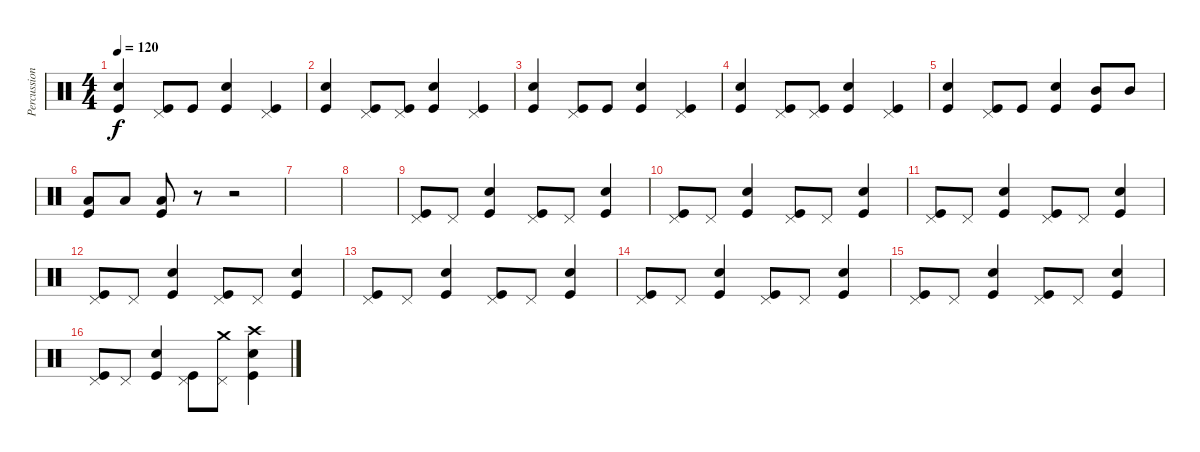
\track ("Percussion" "Percussion") {instrument percussion}
\staff {score}
\articulation defaults
\ts (4 4)
\tempo 120
\clef neutral
\ks c
("Snare (hit) 2" "Kick (hit)").4{dy f} ("Pedal Hi-Hat (hit)" "Kick (hit)").8 "Kick (hit)".8 ("Snare (hit) 2" "Kick (hit)").4 ("Pedal Hi-Hat (hit)" "Kick (hit)").4 |
("Snare (hit) 2" "Kick (hit)").4 ("Pedal Hi-Hat (hit)" "Kick (hit)").8 ("Pedal Hi-Hat (hit)" "Kick (hit)").8 ("Snare (hit) 2" "Kick (hit)").4 ("Pedal Hi-Hat (hit)" "Kick (hit)").4 |
("Snare (hit) 2" "Kick (hit)").4 ("Pedal Hi-Hat (hit)" "Kick (hit)").8 "Kick (hit)".8 ("Snare (hit) 2" "Kick (hit)").4 ("Pedal Hi-Hat (hit)" "Kick (hit)").4 |
("Snare (hit) 2" "Kick (hit)").4 ("Pedal Hi-Hat (hit)" "Kick (hit)").8 ("Pedal Hi-Hat (hit)" "Kick (hit)").8 ("Snare (hit) 2" "Kick (hit)").4 ("Pedal Hi-Hat (hit)" "Kick (hit)").4 |
("Snare (hit) 2" "Kick (hit)").4 ("Pedal Hi-Hat (hit)" "Kick (hit)").8 "Kick (hit)".8 ("Snare (hit) 2" "Kick (hit)").4 ("Mid Tom (hit)" "Kick (hit)").8 "Mid Tom (hit)".8 |
("Low Tom (hit)" "Kick (hit)").8 "Low Tom (hit)".8 ("Low Tom (hit)" "Kick (hit)").8 r.8 r.2 |
|
|
("Pedal Hi-Hat (hit)" "Kick (hit)").8 "Pedal Hi-Hat (hit)".8 ("Snare (hit) 2" "Kick (hit)").4 ("Pedal Hi-Hat (hit)" "Kick (hit)").8 "Pedal Hi-Hat (hit)".8 ("Snare (hit) 2" "Kick (hit)").4 |
("Pedal Hi-Hat (hit)" "Kick (hit)").8 "Pedal Hi-Hat (hit)".8 ("Snare (hit) 2" "Kick (hit)").4 ("Pedal Hi-Hat (hit)" "Kick (hit)").8 "Pedal Hi-Hat (hit)".8 ("Snare (hit) 2" "Kick (hit)").4 |
("Pedal Hi-Hat (hit)" "Kick (hit)").8 "Pedal Hi-Hat (hit)".8 ("Snare (hit) 2" "Kick (hit)").4 ("Pedal Hi-Hat (hit)" "Kick (hit)").8 "Pedal Hi-Hat (hit)".8 ("Snare (hit) 2" "Kick (hit)").4 |
("Pedal Hi-Hat (hit)" "Kick (hit)").8 "Pedal Hi-Hat (hit)".8 ("Snare (hit) 2" "Kick (hit)").4 ("Pedal Hi-Hat (hit)" "Kick (hit)").8 "Pedal Hi-Hat (hit)".8 ("Snare (hit) 2" "Kick (hit)").4 |
("Pedal Hi-Hat (hit)" "Kick (hit)").8 "Pedal Hi-Hat (hit)".8 ("Snare (hit) 2" "Kick (hit)").4 ("Pedal Hi-Hat (hit)" "Kick (hit)").8 "Pedal Hi-Hat (hit)".8 ("Snare (hit) 2" "Kick (hit)").4 |
("Pedal Hi-Hat (hit)" "Kick (hit)").8 "Pedal Hi-Hat (hit)".8 ("Snare (hit) 2" "Kick (hit)").4 ("Pedal Hi-Hat (hit)" "Kick (hit)").8 "Pedal Hi-Hat (hit)".8 ("Snare (hit) 2" "Kick (hit)").4 |
("Pedal Hi-Hat (hit)" "Kick (hit)").8 "Pedal Hi-Hat (hit)".8 ("Snare (hit) 2" "Kick (hit)").4 ("Pedal Hi-Hat (hit)" "Kick (hit)").8 "Pedal Hi-Hat (hit)".8 ("Snare (hit) 2" "Kick (hit)").4 |
("Pedal Hi-Hat (hit)" "Kick (hit)").8 "Pedal Hi-Hat (hit)".8 ("Snare (hit) 2" "Kick (hit)").4 ("Pedal Hi-Hat (hit)" "Kick (hit)").8 ("Crash medium (hit)" "Pedal Hi-Hat (hit)").8 ("Crash high (hit)" "Snare (hit) 2" "Kick (hit)").4
